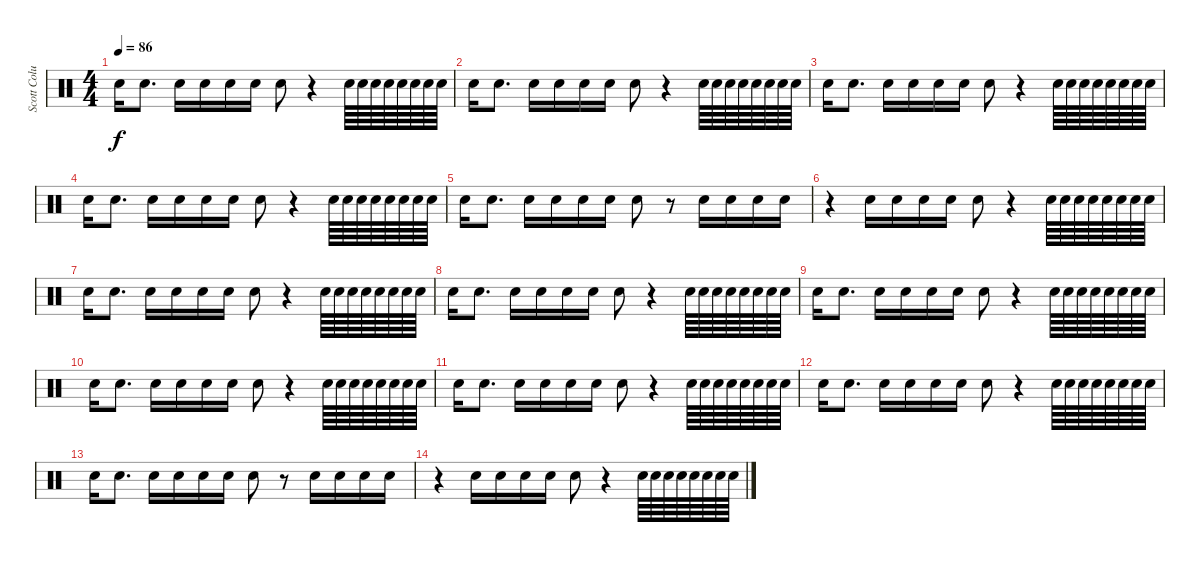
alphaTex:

\track ("Scott Columbus - Drums" "Scott Colu") {instrument percussion}
\staff {score}
\articulation defaults
\ts (4 4)
\tempo 86
\clef neutral
\ks c "Snare (hit) 2".16{dy f} "Snare (hit) 2".8{d} "Snare (hit) 2".16 "Snare (hit) 2".16 "Snare (hit) 2".16 "Snare (hit) 2".16 "Snare (hit) 2".8
r.4 "Snare (hit) 2".64 "Snare (hit) 2".64 "Snare (hit) 2".64 "Snare (hit) 2".64 "Snare (hit) 2".64 "Snare (hit) 2".64 "Snare (hit) 2".64 "Snare (hit) 2".64 |
"Snare (hit) 2".16 "Snare (hit) 2".8{d} "Snare (hit) 2".16 "Snare (hit) 2".16 "Snare (hit) 2".16 "Snare (hit) 2".16 "Snare (hit) 2".8 r.4 "Snare (hit) 2".64 "Snare (hit) 2".64 "Snare (hit) 2".64 "Snare (hit) 2".64 "Snare (hit) 2".64 "Snare (hit) 2".64 "Snare (hit) 2".64 "Snare (hit) 2".64 |
"Snare (hit) 2".16 "Snare (hit) 2".8{d} "Snare (hit) 2".16 "Snare (hit) 2".16 "Snare (hit) 2".16 "Snare (hit) 2".16 "Snare (hit) 2".8 r.4 "Snare (hit) 2".64 "Snare (hit) 2".64 "Snare (hit) 2".64 "Snare (hit) 2".64 "Snare (hit) 2".64 "Snare (hit) 2".64 "Snare (hit) 2".64 "Snare (hit) 2".64 |
"Snare (hit) 2".16 "Snare (hit) 2".8{d} "Snare (hit) 2".16 "Snare (hit) 2".16 "Snare (hit) 2".16 "Snare (hit) 2".16 "Snare (hit) 2".8 r.4 "Snare (hit) 2".64 "Snare (hit) 2".64 "Snare (hit) 2".64 "Snare (hit) 2".64 "Snare (hit) 2".64 "Snare (hit) 2".64 "Snare (hit) 2".64 "Snare (hit) 2".64 |
"Snare (hit) 2".16 "Snare (hit) 2".8{d} "Snare (hit) 2".16 "Snare (hit) 2".16 "Snare (hit) 2".16 "Snare (hit) 2".16 "Snare (hit) 2".8 r.8 "Snare (hit) 2".16 "Snare (hit) 2".16 "Snare (hit) 2".16 "Snare (hit) 2".16 |
r.4{volume 7} "Snare (hit) 2".16 "Snare (hit) 2".16 "Snare (hit) 2".16 "Snare (hit) 2".16 "Snare (hit) 2".8 r.4 "Snare (hit) 2".64 "Snare (hit) 2".64 "Snare (hit) 2".64 "Snare (hit) 2".64 "Snare (hit) 2".64 "Snare (hit) 2".64 "Snare (hit) 2".64 "Snare (hit) 2".64 |
"Snare (hit) 2".16{volume 6} "Snare (hit) 2".8{d} "Snare (hit) 2".16 "Snare (hit) 2".16 "Snare (hit) 2".16 "Snare (hit) 2".16 "Snare (hit) 2".8 r.4 "Snare (hit) 2".64 "Snare (hit) 2".64 "Snare (hit) 2".64 "Snare (hit) 2".64 "Snare (hit) 2".64 "Snare (hit) 2".64 "Snare (hit) 2".64 "Snare (hit) 2".64 |
"Snare (hit) 2".16{volume 5} "Snare (hit) 2".8{d} "Snare (hit) 2".16 "Snare (hit) 2".16 "Snare (hit) 2".16 "Snare (hit) 2".16 "Snare (hit) 2".8 r.4 "Snare (hit) 2".64 "Snare (hit) 2".64 "Snare (hit) 2".64 "Snare (hit) 2".64 "Snare (hit) 2".64 "Snare (hit) 2".64 "Snare (hit) 2".64 "Snare (hit) 2".64 |
"Snare (hit) 2".16{volume 4} "Snare (hit) 2".8{d} "Snare (hit) 2".16 "Snare (hit) 2".16 "Snare (hit) 2".16 "Snare (hit) 2".16 "Snare (hit) 2".8 r.4 "Snare (hit) 2".64 "Snare (hit) 2".64 "Snare (hit) 2".64 "Snare (hit) 2".64 "Snare (hit) 2".64 "Snare (hit) 2".64 "Snare (hit) 2".64 "Snare (hit) 2".64 |
"Snare (hit) 2".16{volume 3} "Snare (hit) 2".8{d} "Snare (hit) 2".16 "Snare (hit) 2".16 "Snare (hit) 2".16 "Snare (hit) 2".16 "Snare (hit) 2".8 r.4 "Snare (hit) 2".64 "Snare (hit) 2".64 "Snare (hit) 2".64 "Snare (hit) 2".64 "Snare (hit) 2".64 "Snare (hit) 2".64 "Snare (hit) 2".64 "Snare (hit) 2".64 |
"Snare (hit) 2".16{volume 2} "Snare (hit) 2".8{d} "Snare (hit) 2".16 "Snare (hit) 2".16 "Snare (hit) 2".16 "Snare (hit) 2".16 "Snare (hit) 2".8 r.4 "Snare (hit) 2".64 "Snare (hit) 2".64 "Snare (hit) 2".64 "Snare (hit) 2".64 "Snare (hit) 2".64 "Snare (hit) 2".64 "Snare (hit) 2".64 "Snare (hit) 2".64 |
"Snare (hit) 2".16 "Snare (hit) 2".8{d} "Snare (hit) 2".16 "Snare (hit) 2".16 "Snare (hit) 2".16 "Snare (hit) 2".16 "Snare (hit) 2".8 r.4 "Snare (hit) 2".64 "Snare (hit) 2".64 "Snare (hit) 2".64 "Snare (hit) 2".64 "Snare (hit) 2".64 "Snare (hit) 2".64 "Snare (hit) 2".64 "Snare (hit) 2".64 |
"Snare (hit) 2".16{volume 1} "Snare (hit) 2".8{d} "Snare (hit) 2".16 "Snare (hit) 2".16 "Snare (hit) 2".16 "Snare (hit) 2".16 "Snare (hit) 2".8 r.8 "Snare (hit) 2".16 "Snare (hit) 2".16 "Snare (hit) 2".16 "Snare (hit) 2".16 |
r.4 "Snare (hit) 2".16 "Snare (hit) 2".16 "Snare (hit) 2".16 "Snare (hit) 2".16 "Snare (hit) 2".8 r.4 "Snare (hit) 2".64 "Snare (hit) 2".64 "Snare (hit) 2".64 "Snare (hit) 2".64 "Snare (hit) 2".64 "Snare (hit) 2".64 "Snare (hit) 2".64 "Snare (hit) 2".64
